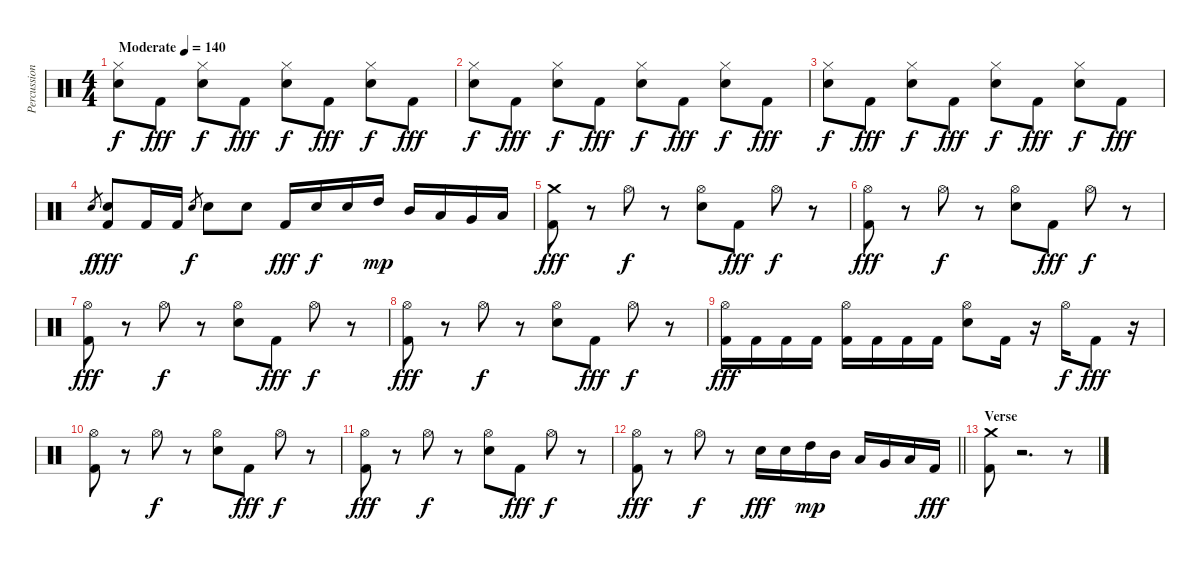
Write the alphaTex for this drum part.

\track ("Percussion" "Percussion") {instrument percussion}
\staff {score}
\articulation defaults
\ts (4 4)
\tempo (140 "Moderate")
\clef neutral
\ks c
("Hi-Hat (closed)" "Electric Snare (hit)").8{dy f} "Kick (hit) 2".8{dy fff} ("Hi-Hat (closed)" "Electric Snare (hit)").8{dy f} "Kick (hit) 2".8{dy fff} ("Hi-Hat (closed)" "Electric Snare (hit)").8{dy f} "Kick (hit) 2".8{dy fff} ("Hi-Hat (closed)" "Electric Snare (hit)").8{dy f} "Kick (hit) 2".8{dy fff} |
("Hi-Hat (closed)" "Electric Snare (hit)").8{dy f} "Kick (hit) 2".8{dy fff} ("Hi-Hat (closed)" "Electric Snare (hit)").8{dy f} "Kick (hit) 2".8{dy fff} ("Hi-Hat (closed)" "Electric Snare (hit)").8{dy f} "Kick (hit) 2".8{dy fff} ("Hi-Hat (closed)" "Electric Snare (hit)").8{dy f} "Kick (hit) 2".8{dy fff} |
("Hi-Hat (closed)" "Electric Snare (hit)").8{dy f} "Kick (hit) 2".8{dy fff} ("Hi-Hat (closed)" "Electric Snare (hit)").8{dy f} "Kick (hit) 2".8{dy fff} ("Hi-Hat (closed)" "Electric Snare (hit)").8{dy f} "Kick (hit) 2".8{dy fff} ("Hi-Hat (closed)" "Electric Snare (hit)").8{dy f} "Kick (hit) 2".8{dy fff} |
"Electric Snare (hit)".8{gr dy f} ("Electric Snare (hit)" "Kick (hit) 2").8{dy fff} "Kick (hit) 2".16 "Kick (hit) 2".16 "Electric Snare (hit)".8{gr dy f} "Electric Snare (hit)".8 "Electric Snare (hit)".8 "Kick (hit) 2".16{dy fff} "Electric Snare (hit)".16{dy f} "Electric Snare (hit)".16 "High Tom (hit)".16{dy mp} "Mid Tom (hit)".16 "Low Tom (hit)".16 "Very Low Tom (hit)".16 "Low Floor Tom (hit)".16 |
("Crash medium (hit)" "Kick (hit) 2").8{dy fff} r.8 "Hi-Hat (open)".8{dy f} r.8 ("Hi-Hat (open)" "Electric Snare (hit)").8 "Kick (hit) 2".8{dy fff} "Hi-Hat (open)".8{dy f} r.8 |
("Hi-Hat (open)" "Kick (hit) 2").8{dy fff} r.8 "Hi-Hat (open)".8{dy f} r.8 ("Hi-Hat (open)" "Electric Snare (hit)").8 "Kick (hit) 2".8{dy fff} "Hi-Hat (open)".8{dy f} r.8 |
("Hi-Hat (open)" "Kick (hit) 2").8{dy fff} r.8 "Hi-Hat (open)".8{dy f} r.8 ("Hi-Hat (open)" "Electric Snare (hit)").8 "Kick (hit) 2".8{dy fff} "Hi-Hat (open)".8{dy f} r.8 |
("Hi-Hat (open)" "Kick (hit) 2").8{dy fff} r.8 "Hi-Hat (open)".8{dy f} r.8 ("Hi-Hat (open)" "Electric Snare (hit)").8 "Kick (hit) 2".8{dy fff} "Hi-Hat (open)".8{dy f} r.8 |
("Hi-Hat (open)" "Kick (hit) 2").16{dy fff} "Kick (hit) 2".16 "Kick (hit) 2".16 "Kick (hit) 2".16 ("Hi-Hat (open)" "Kick (hit) 2").16 "Kick (hit) 2".16 "Kick (hit) 2".16 "Kick (hit) 2".16 ("Hi-Hat (open)" "Electric Snare (hit)").8 "Kick (hit) 2".16 r.16 "Hi-Hat (open)".16{dy f} "Kick (hit) 2".8{dy fff} r.16 |
("Hi-Hat (open)" "Kick (hit) 2").8 r.8 "Hi-Hat (open)".8{dy f} r.8 ("Hi-Hat (open)" "Electric Snare (hit)").8 "Kick (hit) 2".8{dy fff} "Hi-Hat (open)".8{dy f} r.8 |
("Hi-Hat (open)" "Kick (hit) 2").8{dy fff} r.8 "Hi-Hat (open)".8{dy f} r.8 ("Hi-Hat (open)" "Electric Snare (hit)").8 "Kick (hit) 2".8{dy fff} "Hi-Hat (open)".8{dy f} r.8 |
\barLineRight lightlight
("Hi-Hat (open)" "Kick (hit) 2").8{dy fff} r.8 "Hi-Hat (open)".8{dy f} r.8 "Electric Snare (hit)".16{dy fff} "Electric Snare (hit)".16 "High Tom (hit)".16{dy mp} "Mid Tom (hit)".16 "Low Tom (hit)".16 "Very Low Tom (hit)".16 "Low Floor Tom (hit)".16 "Kick (hit) 2".16{dy fff} |
\section ("" "Verse")
("Crash medium (hit)" "Kick (hit) 2").8 r.2{d} r.8
